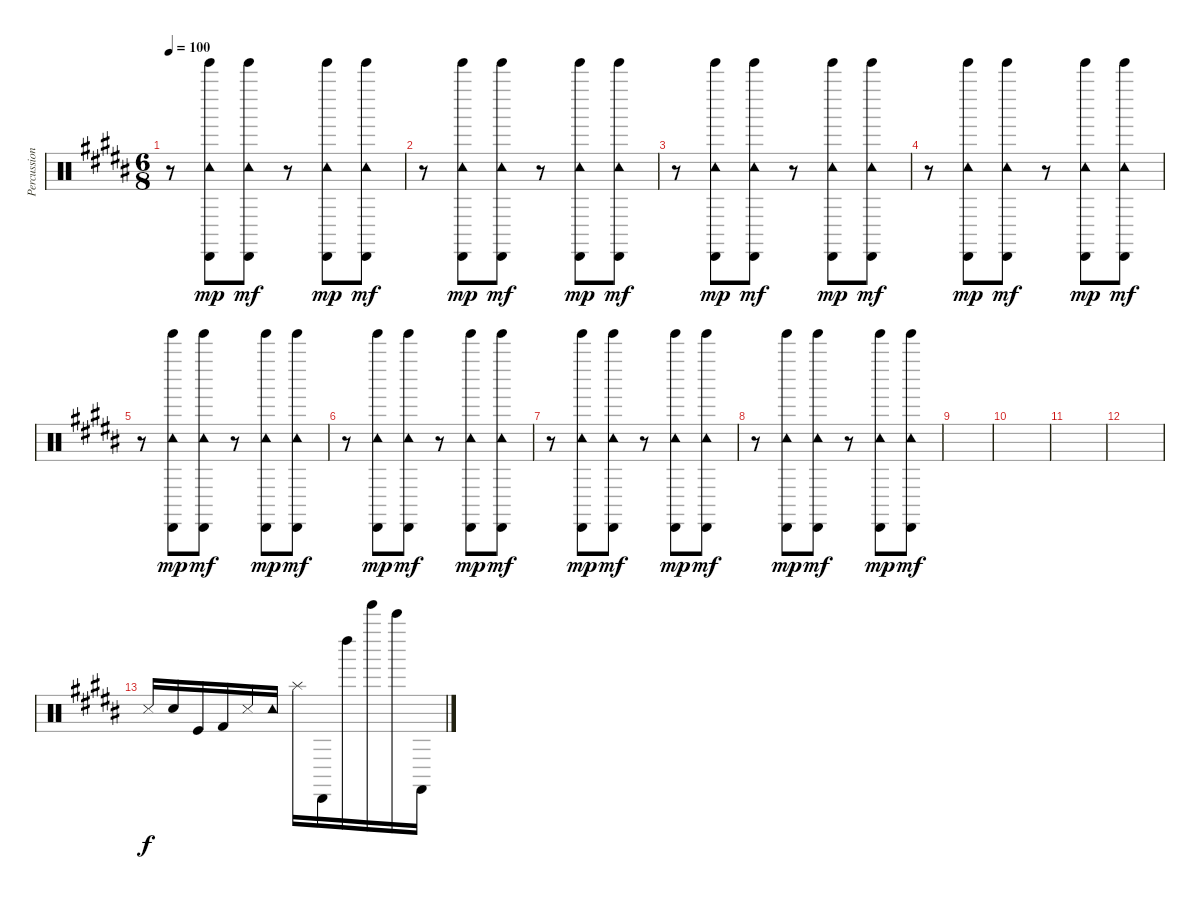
\track ("Percussion" "Percussion") {instrument percussion}
\staff {score}
\articulation defaults
\ts (6 8)
\tempo 100
\clef neutral
\ks b
r.8{dy mp} ("Tinkle Bell (hit)" "Tambourine (hit)" "Cabasa (hit)").8 ("Tinkle Bell (hit)" "Tambourine (hit)" "Cabasa (hit)").8{dy mf} r.8 ("Tinkle Bell (hit)" "Tambourine (hit)" "Cabasa (hit)").8{dy mp} ("Tinkle Bell (hit)" "Tambourine (hit)" "Cabasa (hit)").8{dy mf} |
r.8 ("Tinkle Bell (hit)" "Tambourine (hit)" "Cabasa (hit)").8{dy mp} ("Tinkle Bell (hit)" "Tambourine (hit)" "Cabasa (hit)").8{dy mf} r.8 ("Tinkle Bell (hit)" "Tambourine (hit)" "Cabasa (hit)").8{dy mp} ("Tinkle Bell (hit)" "Tambourine (hit)" "Cabasa (hit)").8{dy mf} |
r.8 ("Tinkle Bell (hit)" "Tambourine (hit)" "Cabasa (hit)").8{dy mp} ("Tinkle Bell (hit)" "Tambourine (hit)" "Cabasa (hit)").8{dy mf} r.8 ("Tinkle Bell (hit)" "Tambourine (hit)" "Cabasa (hit)").8{dy mp} ("Tinkle Bell (hit)" "Tambourine (hit)" "Cabasa (hit)").8{dy mf} |
r.8 ("Tinkle Bell (hit)" "Tambourine (hit)" "Cabasa (hit)").8{dy mp} ("Tinkle Bell (hit)" "Tambourine (hit)" "Cabasa (hit)").8{dy mf} r.8 ("Tinkle Bell (hit)" "Tambourine (hit)" "Cabasa (hit)").8{dy mp} ("Tinkle Bell (hit)" "Tambourine (hit)" "Cabasa (hit)").8{dy mf} |
r.8 ("Tinkle Bell (hit)" "Tambourine (hit)" "Cabasa (hit)").8{dy mp} ("Tinkle Bell (hit)" "Tambourine (hit)" "Cabasa (hit)").8{dy mf} r.8 ("Tinkle Bell (hit)" "Tambourine (hit)" "Cabasa (hit)").8{dy mp} ("Tinkle Bell (hit)" "Tambourine (hit)" "Cabasa (hit)").8{dy mf} |
r.8 ("Tinkle Bell (hit)" "Tambourine (hit)" "Cabasa (hit)").8{dy mp} ("Tinkle Bell (hit)" "Tambourine (hit)" "Cabasa (hit)").8{dy mf} r.8 ("Tinkle Bell (hit)" "Tambourine (hit)" "Cabasa (hit)").8{dy mp} ("Tinkle Bell (hit)" "Tambourine (hit)" "Cabasa (hit)").8{dy mf} |
r.8 ("Tinkle Bell (hit)" "Tambourine (hit)" "Cabasa (hit)").8{dy mp} ("Tinkle Bell (hit)" "Tambourine (hit)" "Cabasa (hit)").8{dy mf} r.8 ("Tinkle Bell (hit)" "Tambourine (hit)" "Cabasa (hit)").8{dy mp} ("Tinkle Bell (hit)" "Tambourine (hit)" "Cabasa (hit)").8{dy mf} |
r.8 ("Tinkle Bell (hit)" "Tambourine (hit)" "Cabasa (hit)").8{dy mp} ("Tinkle Bell (hit)" "Tambourine (hit)" "Cabasa (hit)").8{dy mf} r.8 ("Tinkle Bell (hit)" "Tambourine (hit)" "Cabasa (hit)").8{dy mp} ("Tinkle Bell (hit)" "Tambourine (hit)" "Cabasa (hit)").8{dy mf} |
|
|
|
|
"Metronome (hit)".16{dy f} "Metronome (bell)".16 "Kick (hit)".16 "Kick (hit) 2".16 "Snare (side stick) 3".16 "Tambourine (hit)".16 "Splash (hit)".16 "Cabasa (hit)".16 "Left Maraca (hit)".16 "Tinkle Bell (hit)".16 "Bell Tree (hit)".16 "Castanets (hit)".16
